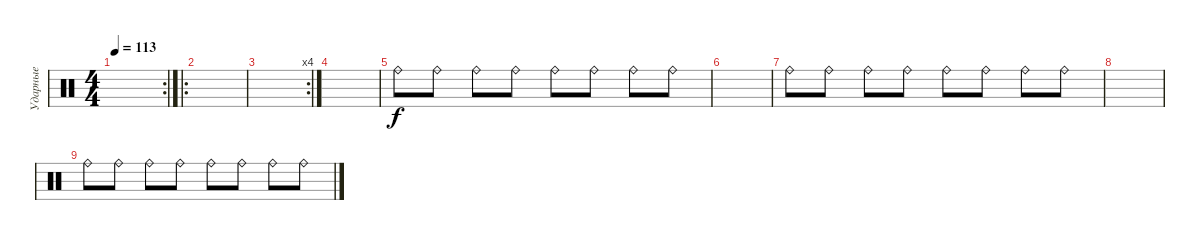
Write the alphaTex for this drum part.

\track ("Ударные" "Ударные") {instrument percussion}
\staff {score}
\articulation defaults
\rc 2
\ts (4 4)
\tempo 113
\clef neutral
\ks c
|
\ro
|
\rc 4
|
|
"Ride (bell)".8 "Ride (bell)".8 "Ride (bell)".8 "Ride (bell)".8 "Ride (bell)".8 "Ride (bell)".8 "Ride (bell)".8 "Ride (bell)".8 |
|
"Ride (bell)".8 "Ride (bell)".8 "Ride (bell)".8 "Ride (bell)".8 "Ride (bell)".8 "Ride (bell)".8 "Ride (bell)".8 "Ride (bell)".8 |
|
"Ride (bell)".8 "Ride (bell)".8 "Ride (bell)".8 "Ride (bell)".8 "Ride (bell)".8 "Ride (bell)".8 "Ride (bell)".8 "Ride (bell)".8
